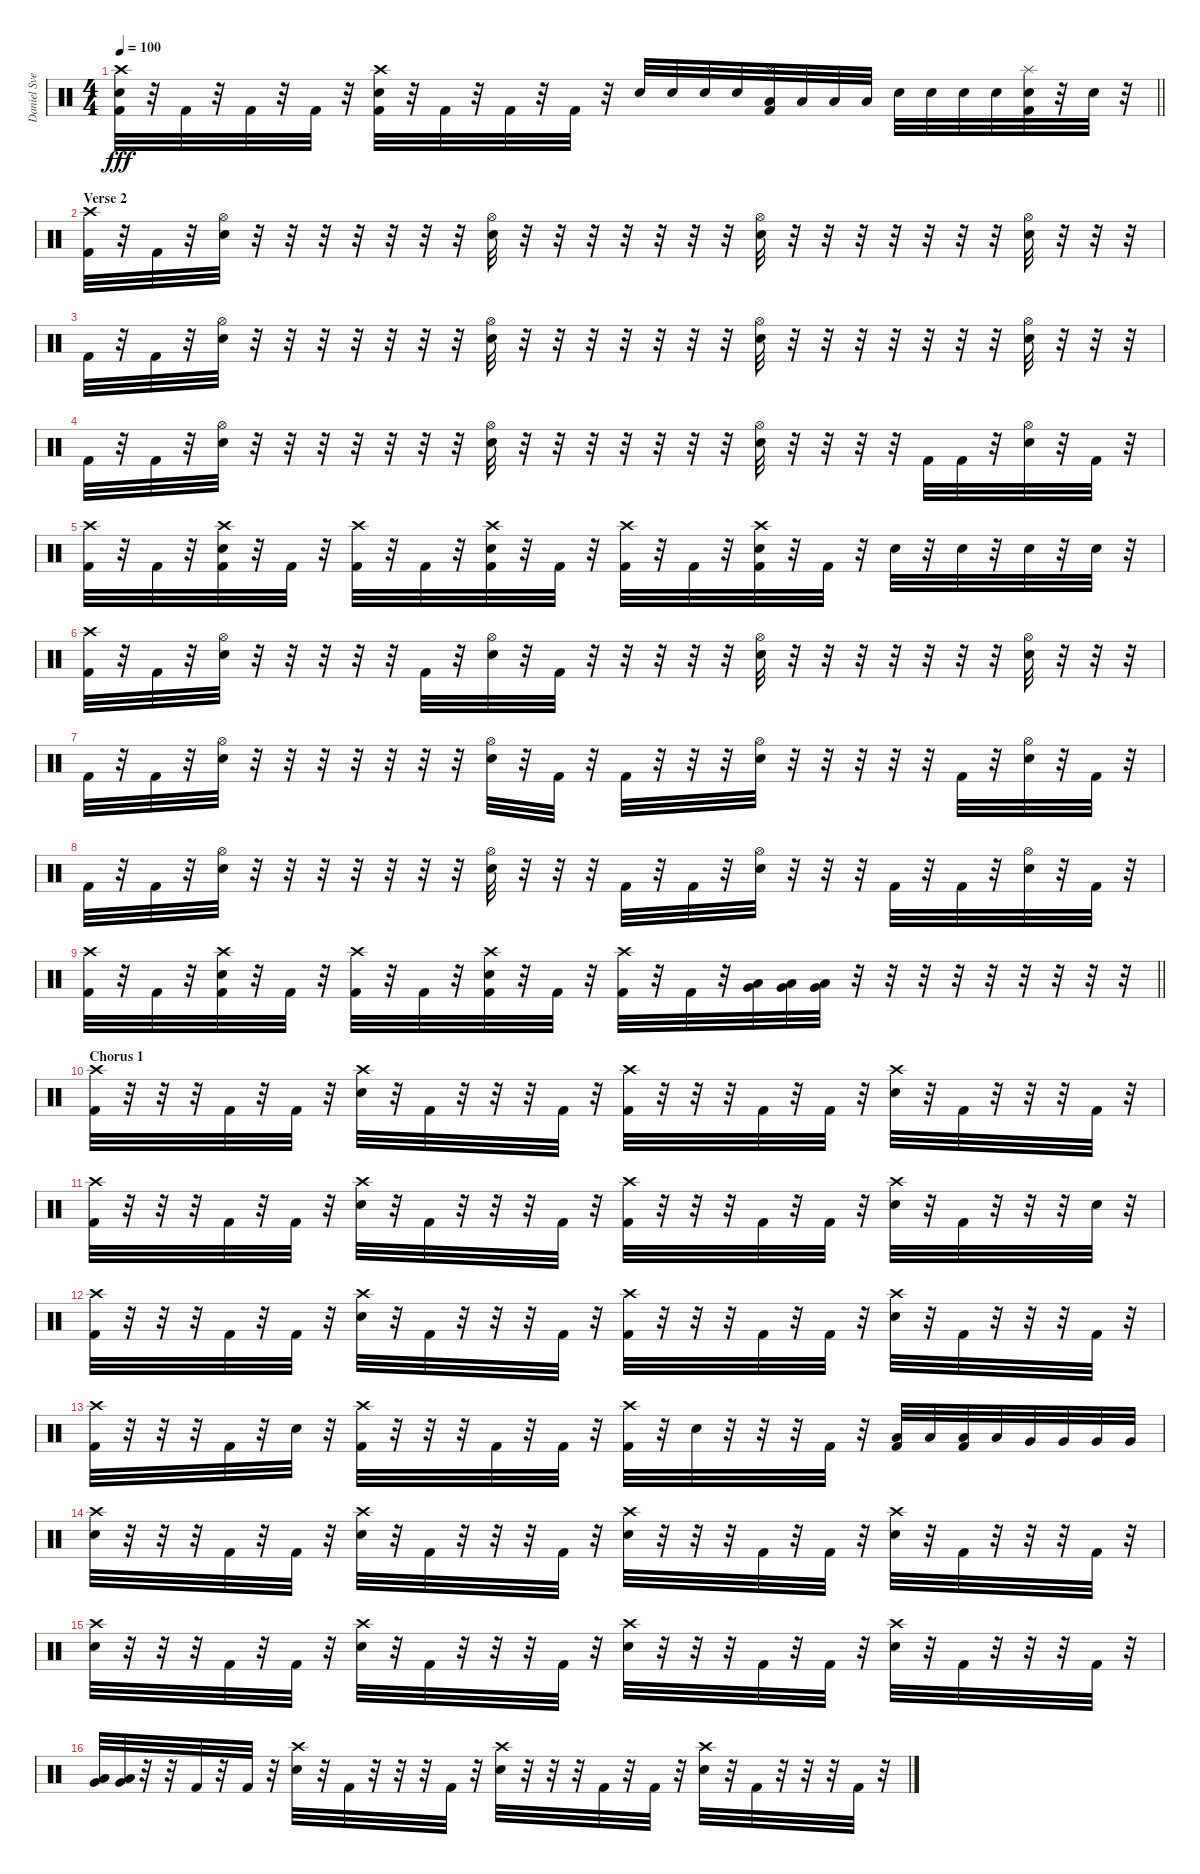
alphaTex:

\track ("Daniel Svensson" "Daniel Sve") {instrument percussion}
\staff {score}
\articulation defaults
\ts (4 4)
\tempo 100
\clef neutral
\barLineRight lightlight
\ks c
("Crash high (hit)" "Electric Snare (hit)" "Kick (hit) 2").32{dy fff} r.32 "Kick (hit) 2".32 r.32 "Kick (hit) 2".32 r.32 "Kick (hit) 2".32 r.32 ("Crash high (hit)" "Electric Snare (hit)" "Kick (hit) 2").32 r.32 "Kick (hit) 2".32 r.32 "Kick (hit) 2".32 r.32 "Kick (hit) 2".32 r.32 "Electric Snare (hit)".32 "Electric Snare (hit)".32 "Electric Snare (hit)".32 "Electric Snare (hit)".32 ("Splash (hit)" "Low Tom (hit)" "Kick (hit) 2").32 "Low Tom (hit)".32 "Low Tom (hit)".32 "Low Tom (hit)".32 "Electric Snare (hit)".32 "Electric Snare (hit)".32 "Electric Snare (hit)".32 "Electric Snare (hit)".32 ("Splash (hit)" "Electric Snare (hit)" "Kick (hit) 2").32 r.32 "Electric Snare (hit)".32 r.32 |
\section ("" "Verse 2")
("Crash high (hit)" "Kick (hit) 2").32 r.32 "Kick (hit) 2".32 r.32 ("Hi-Hat (open)" "Electric Snare (hit)").32 r.32 r.32 r.32 r.32 r.32 r.32 r.32 ("Hi-Hat (open)" "Electric Snare (hit)").32 r.32 r.32 r.32 r.32 r.32 r.32 r.32 ("Hi-Hat (open)" "Electric Snare (hit)").32 r.32 r.32 r.32 r.32 r.32 r.32 r.32 ("Hi-Hat (open)" "Electric Snare (hit)").32 r.32 r.32 r.32 |
"Kick (hit) 2".32 r.32 "Kick (hit) 2".32 r.32 ("Hi-Hat (open)" "Electric Snare (hit)").32 r.32 r.32 r.32 r.32 r.32 r.32 r.32 ("Hi-Hat (open)" "Electric Snare (hit)").32 r.32 r.32 r.32 r.32 r.32 r.32 r.32 ("Hi-Hat (open)" "Electric Snare (hit)").32 r.32 r.32 r.32 r.32 r.32 r.32 r.32 ("Hi-Hat (open)" "Electric Snare (hit)").32 r.32 r.32 r.32 |
"Kick (hit) 2".32 r.32 "Kick (hit) 2".32 r.32 ("Hi-Hat (open)" "Electric Snare (hit)").32 r.32 r.32 r.32 r.32 r.32 r.32 r.32 ("Hi-Hat (open)" "Electric Snare (hit)").32 r.32 r.32 r.32 r.32 r.32 r.32 r.32 ("Hi-Hat (open)" "Electric Snare (hit)").32 r.32 r.32 r.32 r.32 "Kick (hit) 2".32 "Kick (hit) 2".32 r.32 ("Hi-Hat (open)" "Electric Snare (hit)").32 r.32 "Kick (hit) 2".32 r.32 |
("Crash high (hit)" "Kick (hit) 2").32 r.32 "Kick (hit) 2".32 r.32 ("Crash high (hit)" "Electric Snare (hit)" "Kick (hit) 2").32 r.32 "Kick (hit) 2".32 r.32 ("Crash high (hit)" "Kick (hit) 2").32 r.32 "Kick (hit) 2".32 r.32 ("Crash high (hit)" "Electric Snare (hit)" "Kick (hit) 2").32 r.32 "Kick (hit) 2".32 r.32 ("Crash high (hit)" "Kick (hit) 2").32 r.32 "Kick (hit) 2".32 r.32 ("Crash high (hit)" "Electric Snare (hit)" "Kick (hit) 2").32 r.32 "Kick (hit) 2".32 r.32 "Electric Snare (hit)".32 r.32 "Electric Snare (hit)".32 r.32 "Electric Snare (hit)".32 r.32 "Electric Snare (hit)".32 r.32 |
("Crash high (hit)" "Kick (hit) 2").32 r.32 "Kick (hit) 2".32 r.32 ("Hi-Hat (open)" "Electric Snare (hit)").32 r.32 r.32 r.32 r.32 r.32 "Kick (hit) 2".32 r.32 ("Hi-Hat (open)" "Electric Snare (hit)").32 r.32 "Kick (hit) 2".32 r.32 r.32 r.32 r.32 r.32 ("Hi-Hat (open)" "Electric Snare (hit)").32 r.32 r.32 r.32 r.32 r.32 r.32 r.32 ("Hi-Hat (open)" "Electric Snare (hit)").32 r.32 r.32 r.32 |
"Kick (hit) 2".32 r.32 "Kick (hit) 2".32 r.32 ("Hi-Hat (open)" "Electric Snare (hit)").32 r.32 r.32 r.32 r.32 r.32 r.32 r.32 ("Hi-Hat (open)" "Electric Snare (hit)").32 r.32 "Kick (hit) 2".32 r.32 "Kick (hit) 2".32 r.32 r.32 r.32 ("Hi-Hat (open)" "Electric Snare (hit)").32 r.32 r.32 r.32 r.32 r.32 "Kick (hit) 2".32 r.32 ("Hi-Hat (open)" "Electric Snare (hit)").32 r.32 "Kick (hit) 2".32 r.32 |
"Kick (hit) 2".32 r.32 "Kick (hit) 2".32 r.32 ("Hi-Hat (open)" "Electric Snare (hit)").32 r.32 r.32 r.32 r.32 r.32 r.32 r.32 ("Hi-Hat (open)" "Electric Snare (hit)").32 r.32 r.32 r.32 "Kick (hit) 2".32 r.32 "Kick (hit) 2".32 r.32 ("Hi-Hat (open)" "Electric Snare (hit)").32 r.32 r.32 r.32 "Kick (hit) 2".32 r.32 "Kick (hit) 2".32 r.32 ("Hi-Hat (open)" "Electric Snare (hit)").32 r.32 "Kick (hit) 2".32 r.32 |
\barLineRight lightlight
("Crash high (hit)" "Kick (hit) 2").32 r.32 "Kick (hit) 2".32 r.32 ("Crash high (hit)" "Electric Snare (hit)" "Kick (hit) 2").32 r.32 "Kick (hit) 2".32 r.32 ("Crash high (hit)" "Kick (hit) 2").32 r.32 "Kick (hit) 2".32 r.32 ("Crash high (hit)" "Electric Snare (hit)" "Kick (hit) 2").32 r.32 "Kick (hit) 2".32 r.32 ("Crash high (hit)" "Kick (hit) 2").32 r.32 "Kick (hit) 2".32 r.32 ("Very Low Tom (hit)" "Low Floor Tom (hit)").32 ("Very Low Tom (hit)" "Low Floor Tom (hit)").32 ("Very Low Tom (hit)" "Low Floor Tom (hit)").32 r.32 r.32 r.32 r.32 r.32 r.32 r.32 r.32 r.32 |
\section ("" "Chorus 1")
("Crash high (hit)" "Kick (hit) 2").32 r.32 r.32 r.32 "Kick (hit) 2".32 r.32 "Kick (hit) 2".32 r.32 ("Crash high (hit)" "Electric Snare (hit)").32 r.32 "Kick (hit) 2".32 r.32 r.32 r.32 "Kick (hit) 2".32 r.32 ("Crash high (hit)" "Kick (hit) 2").32 r.32 r.32 r.32 "Kick (hit) 2".32 r.32 "Kick (hit) 2".32 r.32 ("Crash high (hit)" "Electric Snare (hit)").32 r.32 "Kick (hit) 2".32 r.32 r.32 r.32 "Kick (hit) 2".32 r.32 |
("Crash high (hit)" "Kick (hit) 2").32 r.32 r.32 r.32 "Kick (hit) 2".32 r.32 "Kick (hit) 2".32 r.32 ("Crash high (hit)" "Electric Snare (hit)").32 r.32 "Kick (hit) 2".32 r.32 r.32 r.32 "Kick (hit) 2".32 r.32 ("Crash high (hit)" "Kick (hit) 2").32 r.32 r.32 r.32 "Kick (hit) 2".32 r.32 "Kick (hit) 2".32 r.32 ("Crash high (hit)" "Electric Snare (hit)").32 r.32 "Kick (hit) 2".32 r.32 r.32 r.32 "Electric Snare (hit)".32 r.32 |
("Crash high (hit)" "Kick (hit) 2").32 r.32 r.32 r.32 "Kick (hit) 2".32 r.32 "Kick (hit) 2".32 r.32 ("Crash high (hit)" "Electric Snare (hit)").32 r.32 "Kick (hit) 2".32 r.32 r.32 r.32 "Kick (hit) 2".32 r.32 ("Crash high (hit)" "Kick (hit) 2").32 r.32 r.32 r.32 "Kick (hit) 2".32 r.32 "Kick (hit) 2".32 r.32 ("Crash high (hit)" "Electric Snare (hit)").32 r.32 "Kick (hit) 2".32 r.32 r.32 r.32 "Kick (hit) 2".32 r.32 |
("Crash high (hit)" "Kick (hit) 2").32 r.32 r.32 r.32 "Kick (hit) 2".32 r.32 "Electric Snare (hit)".32 r.32 ("Crash high (hit)" "Kick (hit) 2").32 r.32 r.32 r.32 "Kick (hit) 2".32 r.32 "Kick (hit) 2".32 r.32 ("Crash high (hit)" "Kick (hit) 2").32 r.32 "Electric Snare (hit)".32 r.32 r.32 r.32 "Kick (hit) 2".32 r.32 ("Low Tom (hit)" "Kick (hit) 2").32 "Low Tom (hit)".32 ("Low Tom (hit)" "Kick (hit) 2").32 "Low Tom (hit)".32 "Very Low Tom (hit)".32 "Very Low Tom (hit)".32 "Very Low Tom (hit)".32 "Very Low Tom (hit)".32 |
("Crash high (hit)" "Electric Snare (hit)").32 r.32 r.32 r.32 "Kick (hit) 2".32 r.32 "Kick (hit) 2".32 r.32 ("Crash high (hit)" "Electric Snare (hit)").32 r.32 "Kick (hit) 2".32 r.32 r.32 r.32 "Kick (hit) 2".32 r.32 ("Crash high (hit)" "Electric Snare (hit)").32 r.32 r.32 r.32 "Kick (hit) 2".32 r.32 "Kick (hit) 2".32 r.32 ("Crash high (hit)" "Electric Snare (hit)").32 r.32 "Kick (hit) 2".32 r.32 r.32 r.32 "Kick (hit) 2".32 r.32 |
("Crash high (hit)" "Electric Snare (hit)").32 r.32 r.32 r.32 "Kick (hit) 2".32 r.32 "Kick (hit) 2".32 r.32 ("Crash high (hit)" "Electric Snare (hit)").32 r.32 "Kick (hit) 2".32 r.32 r.32 r.32 "Kick (hit) 2".32 r.32 ("Crash high (hit)" "Electric Snare (hit)").32 r.32 r.32 r.32 "Kick (hit) 2".32 r.32 "Kick (hit) 2".32 r.32 ("Crash high (hit)" "Electric Snare (hit)").32 r.32 "Kick (hit) 2".32 r.32 r.32 r.32 "Kick (hit) 2".32 r.32 |
("Very Low Tom (hit)" "Low Floor Tom (hit)").32 ("Very Low Tom (hit)" "Low Floor Tom (hit)").32 r.32 r.32 "Kick (hit) 2".32 r.32 "Kick (hit) 2".32 r.32 ("Crash high (hit)" "Electric Snare (hit)").32 r.32 "Kick (hit) 2".32 r.32 r.32 r.32 "Kick (hit) 2".32 r.32 ("Crash high (hit)" "Electric Snare (hit)").32 r.32 r.32 r.32 "Kick (hit) 2".32 r.32 "Kick (hit) 2".32 r.32 ("Crash high (hit)" "Electric Snare (hit)").32 r.32 "Kick (hit) 2".32 r.32 r.32 r.32 "Kick (hit) 2".32 r.32
